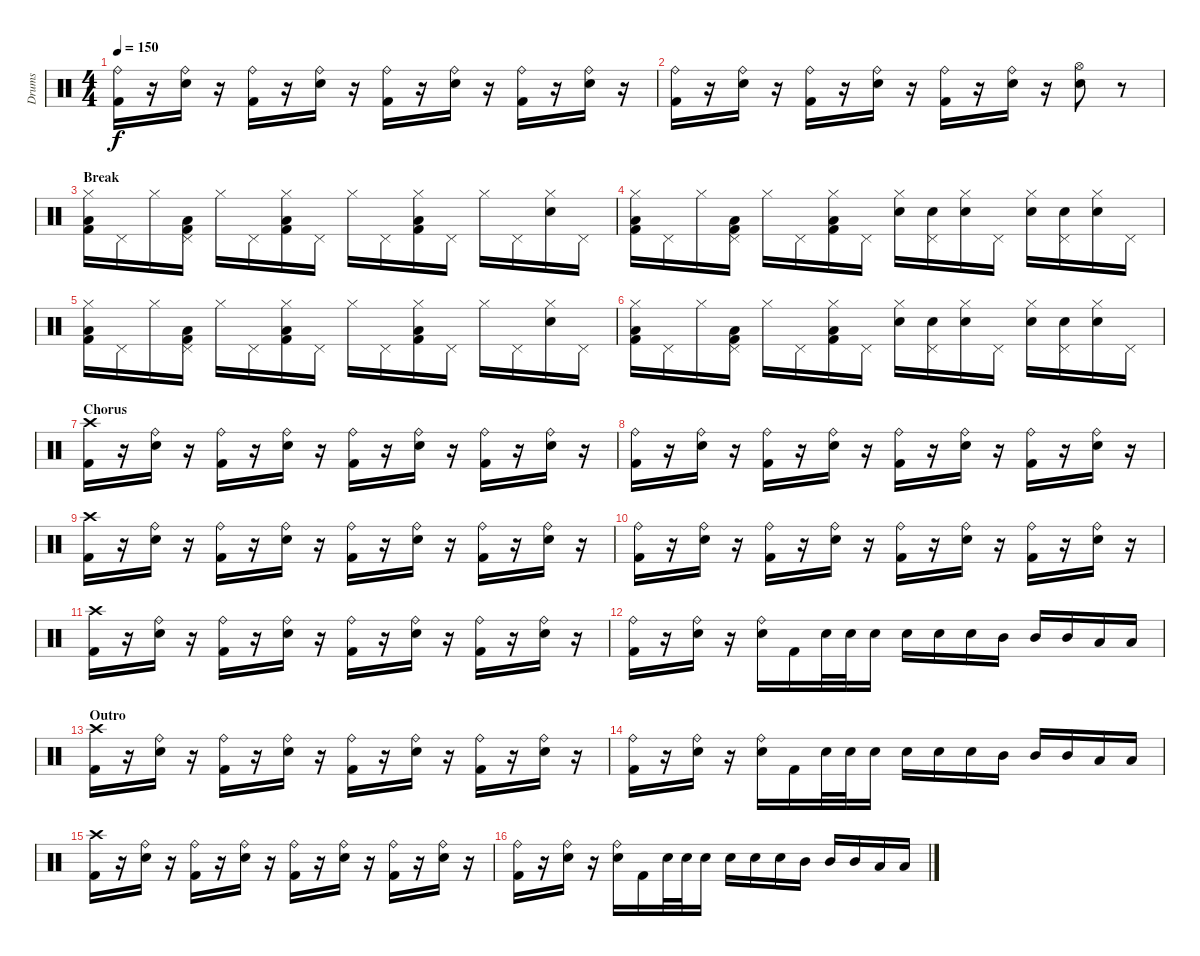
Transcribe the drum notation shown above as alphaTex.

\track ("Drums" "Drums") {instrument percussion}
\staff {score}
\articulation defaults
\ts (4 4)
\tempo 150
\clef neutral
\ks c
("Ride (bell)" "Kick (hit) 2").16{dy f} r.16 ("Ride (bell)" "Electric Snare (hit)").16 r.16 ("Ride (bell)" "Kick (hit) 2").16 r.16 ("Ride (bell)" "Electric Snare (hit)").16 r.16 ("Ride (bell)" "Kick (hit) 2").16 r.16 ("Ride (bell)" "Electric Snare (hit)").16 r.16 ("Ride (bell)" "Kick (hit) 2").16 r.16 ("Ride (bell)" "Electric Snare (hit)").16 r.16 |
("Ride (bell)" "Kick (hit) 2").16 r.16 ("Ride (bell)" "Electric Snare (hit)").16 r.16 ("Ride (bell)" "Kick (hit) 2").16 r.16 ("Ride (bell)" "Electric Snare (hit)").16 r.16 ("Ride (bell)" "Kick (hit) 2").16 r.16 ("Ride (bell)" "Electric Snare (hit)").16 r.16 ("Hi-Hat (open)" "Electric Snare (hit)").8 r.8 |
\section ("" "Break")
("Hi-Hat (closed)" "Low Floor Tom (hit)" "Kick (hit) 2").16 "Pedal Hi-Hat (hit)".16 "Hi-Hat (closed)".16 ("Pedal Hi-Hat (hit)" "Low Floor Tom (hit)" "Kick (hit) 2").16 "Hi-Hat (closed)".16 "Pedal Hi-Hat (hit)".16 ("Hi-Hat (closed)" "Low Floor Tom (hit)" "Kick (hit) 2").16 "Pedal Hi-Hat (hit)".16 "Hi-Hat (closed)".16 "Pedal Hi-Hat (hit)".16 ("Hi-Hat (closed)" "Low Floor Tom (hit)" "Kick (hit) 2").16 "Pedal Hi-Hat (hit)".16 "Hi-Hat (closed)".16 "Pedal Hi-Hat (hit)".16 ("Hi-Hat (closed)" "Electric Snare (hit)").16 "Pedal Hi-Hat (hit)".16 |
("Hi-Hat (closed)" "Low Floor Tom (hit)" "Kick (hit) 2").16 "Pedal Hi-Hat (hit)".16 "Hi-Hat (closed)".16 ("Pedal Hi-Hat (hit)" "Low Floor Tom (hit)" "Kick (hit) 2").16 "Hi-Hat (closed)".16 "Pedal Hi-Hat (hit)".16 ("Hi-Hat (closed)" "Low Floor Tom (hit)" "Kick (hit) 2").16 "Pedal Hi-Hat (hit)".16 ("Hi-Hat (closed)" "Electric Snare (hit)").16 ("Pedal Hi-Hat (hit)" "Electric Snare (hit)").16 ("Hi-Hat (closed)" "Electric Snare (hit)").16 "Pedal Hi-Hat (hit)".16 ("Hi-Hat (closed)" "Electric Snare (hit)").16 ("Pedal Hi-Hat (hit)" "Electric Snare (hit)").16 ("Hi-Hat (closed)" "Electric Snare (hit)").16 "Pedal Hi-Hat (hit)".16 |
("Hi-Hat (closed)" "Low Floor Tom (hit)" "Kick (hit) 2").16 "Pedal Hi-Hat (hit)".16 "Hi-Hat (closed)".16 ("Pedal Hi-Hat (hit)" "Low Floor Tom (hit)" "Kick (hit) 2").16 "Hi-Hat (closed)".16 "Pedal Hi-Hat (hit)".16 ("Hi-Hat (closed)" "Low Floor Tom (hit)" "Kick (hit) 2").16 "Pedal Hi-Hat (hit)".16 "Hi-Hat (closed)".16 "Pedal Hi-Hat (hit)".16 ("Hi-Hat (closed)" "Low Floor Tom (hit)" "Kick (hit) 2").16 "Pedal Hi-Hat (hit)".16 "Hi-Hat (closed)".16 "Pedal Hi-Hat (hit)".16 ("Hi-Hat (closed)" "Electric Snare (hit)").16 "Pedal Hi-Hat (hit)".16 |
("Hi-Hat (closed)" "Low Floor Tom (hit)" "Kick (hit) 2").16 "Pedal Hi-Hat (hit)".16 "Hi-Hat (closed)".16 ("Pedal Hi-Hat (hit)" "Low Floor Tom (hit)" "Kick (hit) 2").16 "Hi-Hat (closed)".16 "Pedal Hi-Hat (hit)".16 ("Hi-Hat (closed)" "Low Floor Tom (hit)" "Kick (hit) 2").16 "Pedal Hi-Hat (hit)".16 ("Hi-Hat (closed)" "Electric Snare (hit)").16 ("Pedal Hi-Hat (hit)" "Electric Snare (hit)").16 ("Hi-Hat (closed)" "Electric Snare (hit)").16 "Pedal Hi-Hat (hit)".16 ("Hi-Hat (closed)" "Electric Snare (hit)").16 ("Pedal Hi-Hat (hit)" "Electric Snare (hit)").16 ("Hi-Hat (closed)" "Electric Snare (hit)").16 "Pedal Hi-Hat (hit)".16 |
\section ("" "Chorus")
("Crash high (hit)" "Kick (hit) 2").16 r.16 ("Ride (bell)" "Electric Snare (hit)").16 r.16 ("Ride (bell)" "Kick (hit) 2").16 r.16 ("Ride (bell)" "Electric Snare (hit)").16 r.16 ("Ride (bell)" "Kick (hit) 2").16 r.16 ("Ride (bell)" "Electric Snare (hit)").16 r.16 ("Ride (bell)" "Kick (hit) 2").16 r.16 ("Ride (bell)" "Electric Snare (hit)").16 r.16 |
("Ride (bell)" "Kick (hit) 2").16 r.16 ("Ride (bell)" "Electric Snare (hit)").16 r.16 ("Ride (bell)" "Kick (hit) 2").16 r.16 ("Ride (bell)" "Electric Snare (hit)").16 r.16 ("Ride (bell)" "Kick (hit) 2").16 r.16 ("Ride (bell)" "Electric Snare (hit)").16 r.16 ("Ride (bell)" "Kick (hit) 2").16 r.16 ("Ride (bell)" "Electric Snare (hit)").16 r.16 |
("Crash high (hit)" "Kick (hit) 2").16 r.16 ("Ride (bell)" "Electric Snare (hit)").16 r.16 ("Ride (bell)" "Kick (hit) 2").16 r.16 ("Ride (bell)" "Electric Snare (hit)").16 r.16 ("Ride (bell)" "Kick (hit) 2").16 r.16 ("Ride (bell)" "Electric Snare (hit)").16 r.16 ("Ride (bell)" "Kick (hit) 2").16 r.16 ("Ride (bell)" "Electric Snare (hit)").16 r.16 |
("Ride (bell)" "Kick (hit) 2").16 r.16 ("Ride (bell)" "Electric Snare (hit)").16 r.16 ("Ride (bell)" "Kick (hit) 2").16 r.16 ("Ride (bell)" "Electric Snare (hit)").16 r.16 ("Ride (bell)" "Kick (hit) 2").16 r.16 ("Ride (bell)" "Electric Snare (hit)").16 r.16 ("Ride (bell)" "Kick (hit) 2").16 r.16 ("Ride (bell)" "Electric Snare (hit)").16 r.16 |
("Crash high (hit)" "Kick (hit) 2").16 r.16 ("Ride (bell)" "Electric Snare (hit)").16 r.16 ("Ride (bell)" "Kick (hit) 2").16 r.16 ("Ride (bell)" "Electric Snare (hit)").16 r.16 ("Ride (bell)" "Kick (hit) 2").16 r.16 ("Ride (bell)" "Electric Snare (hit)").16 r.16 ("Ride (bell)" "Kick (hit) 2").16 r.16 ("Ride (bell)" "Electric Snare (hit)").16 r.16 |
("Ride (bell)" "Kick (hit) 2").16 r.16 ("Ride (bell)" "Electric Snare (hit)").16 r.16 ("Ride (bell)" "Electric Snare (hit)").16 "Kick (hit) 2".16 "Electric Snare (hit)".32 "Electric Snare (hit)".32 "Electric Snare (hit)".16 "Electric Snare (hit)".16 "Electric Snare (hit)".16 "Electric Snare (hit)".16 "Mid Tom (hit)".16 "Mid Tom (hit)".16 "Mid Tom (hit)".16 "Low Tom (hit)".16 "Low Tom (hit)".16 |
\section ("" "Outro")
("Crash high (hit)" "Kick (hit) 2").16 r.16 ("Ride (bell)" "Electric Snare (hit)").16 r.16 ("Ride (bell)" "Kick (hit) 2").16 r.16 ("Ride (bell)" "Electric Snare (hit)").16 r.16 ("Ride (bell)" "Kick (hit) 2").16 r.16 ("Ride (bell)" "Electric Snare (hit)").16 r.16 ("Ride (bell)" "Kick (hit) 2").16 r.16 ("Ride (bell)" "Electric Snare (hit)").16 r.16 |
("Ride (bell)" "Kick (hit) 2").16 r.16 ("Ride (bell)" "Electric Snare (hit)").16 r.16 ("Ride (bell)" "Electric Snare (hit)").16 "Kick (hit) 2".16 "Electric Snare (hit)".32 "Electric Snare (hit)".32 "Electric Snare (hit)".16 "Electric Snare (hit)".16 "Electric Snare (hit)".16 "Electric Snare (hit)".16 "Mid Tom (hit)".16 "Mid Tom (hit)".16 "Mid Tom (hit)".16 "Low Tom (hit)".16 "Low Tom (hit)".16 |
("Crash high (hit)" "Kick (hit) 2").16 r.16 ("Ride (bell)" "Electric Snare (hit)").16 r.16 ("Ride (bell)" "Kick (hit) 2").16 r.16 ("Ride (bell)" "Electric Snare (hit)").16 r.16 ("Ride (bell)" "Kick (hit) 2").16 r.16 ("Ride (bell)" "Electric Snare (hit)").16 r.16 ("Ride (bell)" "Kick (hit) 2").16 r.16 ("Ride (bell)" "Electric Snare (hit)").16 r.16 |
("Ride (bell)" "Kick (hit) 2").16 r.16 ("Ride (bell)" "Electric Snare (hit)").16 r.16 ("Ride (bell)" "Electric Snare (hit)").16 "Kick (hit) 2".16 "Electric Snare (hit)".32 "Electric Snare (hit)".32 "Electric Snare (hit)".16 "Electric Snare (hit)".16 "Electric Snare (hit)".16 "Electric Snare (hit)".16 "Mid Tom (hit)".16 "Mid Tom (hit)".16 "Mid Tom (hit)".16 "Low Tom (hit)".16 "Low Tom (hit)".16
